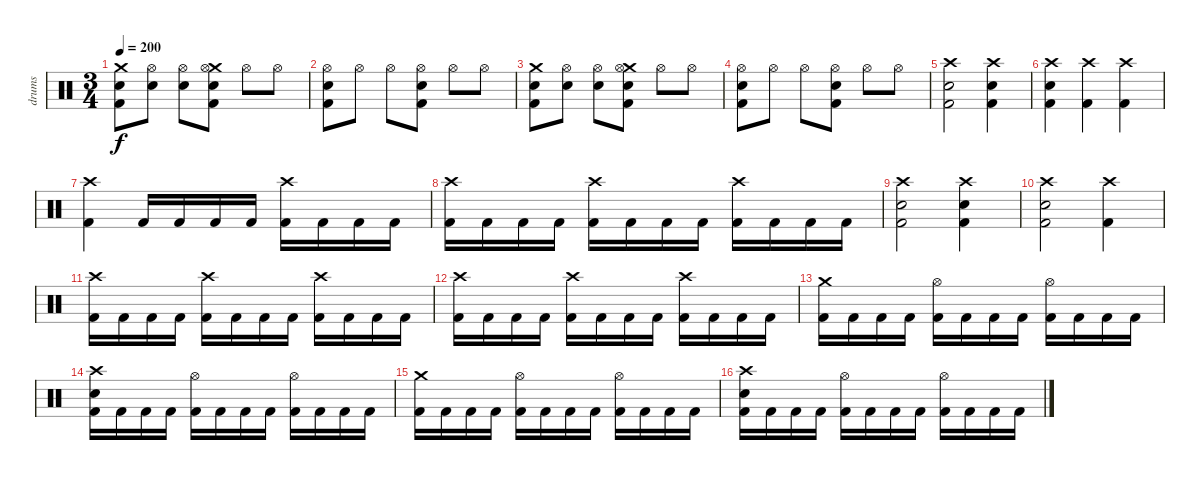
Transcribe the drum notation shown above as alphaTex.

\track ("drums" "drums") {instrument percussion}
\staff {score}
\articulation defaults
\ts (3 4)
\tempo 200
\clef neutral
\ks c
("Crash medium (hit)" "Snare (hit) 2" "Kick (hit) 2").8{dy f} ("Hi-Hat (open)" "Snare (hit) 2").8 ("Hi-Hat (open)" "Snare (hit) 2").8 ("Crash medium (hit)" "Hi-Hat (open)" "Snare (hit) 2" "Kick (hit) 2").8 "Hi-Hat (open)".8 "Hi-Hat (open)".8 |
("Hi-Hat (open)" "Snare (hit) 2" "Kick (hit) 2").8 "Hi-Hat (open)".8 "Hi-Hat (open)".8 ("Hi-Hat (open)" "Snare (hit) 2" "Kick (hit) 2").8 "Hi-Hat (open)".8 "Hi-Hat (open)".8 |
("Crash medium (hit)" "Snare (hit) 2" "Kick (hit) 2").8 ("Hi-Hat (open)" "Snare (hit) 2").8 ("Hi-Hat (open)" "Snare (hit) 2").8 ("Crash medium (hit)" "Hi-Hat (open)" "Snare (hit) 2" "Kick (hit) 2").8 "Hi-Hat (open)".8 "Hi-Hat (open)".8 |
("Hi-Hat (open)" "Snare (hit) 2" "Kick (hit) 2").8 "Hi-Hat (open)".8 "Hi-Hat (open)".8 ("Hi-Hat (open)" "Snare (hit) 2" "Kick (hit) 2").8 "Hi-Hat (open)".8 "Hi-Hat (open)".8 |
("Crash high (hit)" "Snare (hit) 2" "Kick (hit) 2").2 ("Crash high (hit)" "Snare (hit) 2" "Kick (hit) 2").4 |
("Crash high (hit)" "Snare (hit) 2" "Kick (hit) 2").4 ("Crash high (hit)" "Kick (hit) 2").4 ("Crash high (hit)" "Kick (hit) 2").4 |
("Crash high (hit)" "Kick (hit) 2").4 "Kick (hit) 2".16 "Kick (hit) 2".16 "Kick (hit) 2".16 "Kick (hit) 2".16 ("Crash high (hit)" "Kick (hit) 2").16 "Kick (hit) 2".16 "Kick (hit) 2".16 "Kick (hit) 2".16 |
("Crash high (hit)" "Kick (hit) 2").16 "Kick (hit) 2".16 "Kick (hit) 2".16 "Kick (hit) 2".16 ("Crash high (hit)" "Kick (hit) 2").16 "Kick (hit) 2".16 "Kick (hit) 2".16 "Kick (hit) 2".16 ("Crash high (hit)" "Kick (hit) 2").16 "Kick (hit) 2".16 "Kick (hit) 2".16 "Kick (hit) 2".16 |
("Crash high (hit)" "Snare (hit) 2" "Kick (hit) 2").2 ("Crash high (hit)" "Snare (hit) 2" "Kick (hit) 2").4 |
("Crash high (hit)" "Snare (hit) 2" "Kick (hit) 2").2 ("Crash high (hit)" "Kick (hit) 2").4 |
("Crash high (hit)" "Kick (hit) 2").16 "Kick (hit) 2".16 "Kick (hit) 2".16 "Kick (hit) 2".16 ("Crash high (hit)" "Kick (hit) 2").16 "Kick (hit) 2".16 "Kick (hit) 2".16 "Kick (hit) 2".16 ("Crash high (hit)" "Kick (hit) 2").16 "Kick (hit) 2".16 "Kick (hit) 2".16 "Kick (hit) 2".16 |
("Crash high (hit)" "Kick (hit) 2").16 "Kick (hit) 2".16 "Kick (hit) 2".16 "Kick (hit) 2".16 ("Crash high (hit)" "Kick (hit) 2").16 "Kick (hit) 2".16 "Kick (hit) 2".16 "Kick (hit) 2".16 ("Crash high (hit)" "Kick (hit) 2").16 "Kick (hit) 2".16 "Kick (hit) 2".16 "Kick (hit) 2".16 |
("Crash medium (hit)" "Kick (hit) 2").16 "Kick (hit) 2".16 "Kick (hit) 2".16 "Kick (hit) 2".16 ("Hi-Hat (open)" "Kick (hit) 2").16 "Kick (hit) 2".16 "Kick (hit) 2".16 "Kick (hit) 2".16 ("Hi-Hat (open)" "Kick (hit) 2").16 "Kick (hit) 2".16 "Kick (hit) 2".16 "Kick (hit) 2".16 |
("Crash high (hit)" "Snare (hit) 2" "Kick (hit) 2").16 "Kick (hit) 2".16 "Kick (hit) 2".16 "Kick (hit) 2".16 ("Hi-Hat (open)" "Kick (hit) 2").16 "Kick (hit) 2".16 "Kick (hit) 2".16 "Kick (hit) 2".16 ("Hi-Hat (open)" "Kick (hit) 2").16 "Kick (hit) 2".16 "Kick (hit) 2".16 "Kick (hit) 2".16 |
("Crash medium (hit)" "Kick (hit) 2").16 "Kick (hit) 2".16 "Kick (hit) 2".16 "Kick (hit) 2".16 ("Hi-Hat (open)" "Kick (hit) 2").16 "Kick (hit) 2".16 "Kick (hit) 2".16 "Kick (hit) 2".16 ("Hi-Hat (open)" "Kick (hit) 2").16 "Kick (hit) 2".16 "Kick (hit) 2".16 "Kick (hit) 2".16 |
("Crash high (hit)" "Snare (hit) 2" "Kick (hit) 2").16 "Kick (hit) 2".16 "Kick (hit) 2".16 "Kick (hit) 2".16 ("Hi-Hat (open)" "Kick (hit) 2").16 "Kick (hit) 2".16 "Kick (hit) 2".16 "Kick (hit) 2".16 ("Hi-Hat (open)" "Kick (hit) 2").16 "Kick (hit) 2".16 "Kick (hit) 2".16 "Kick (hit) 2".16
